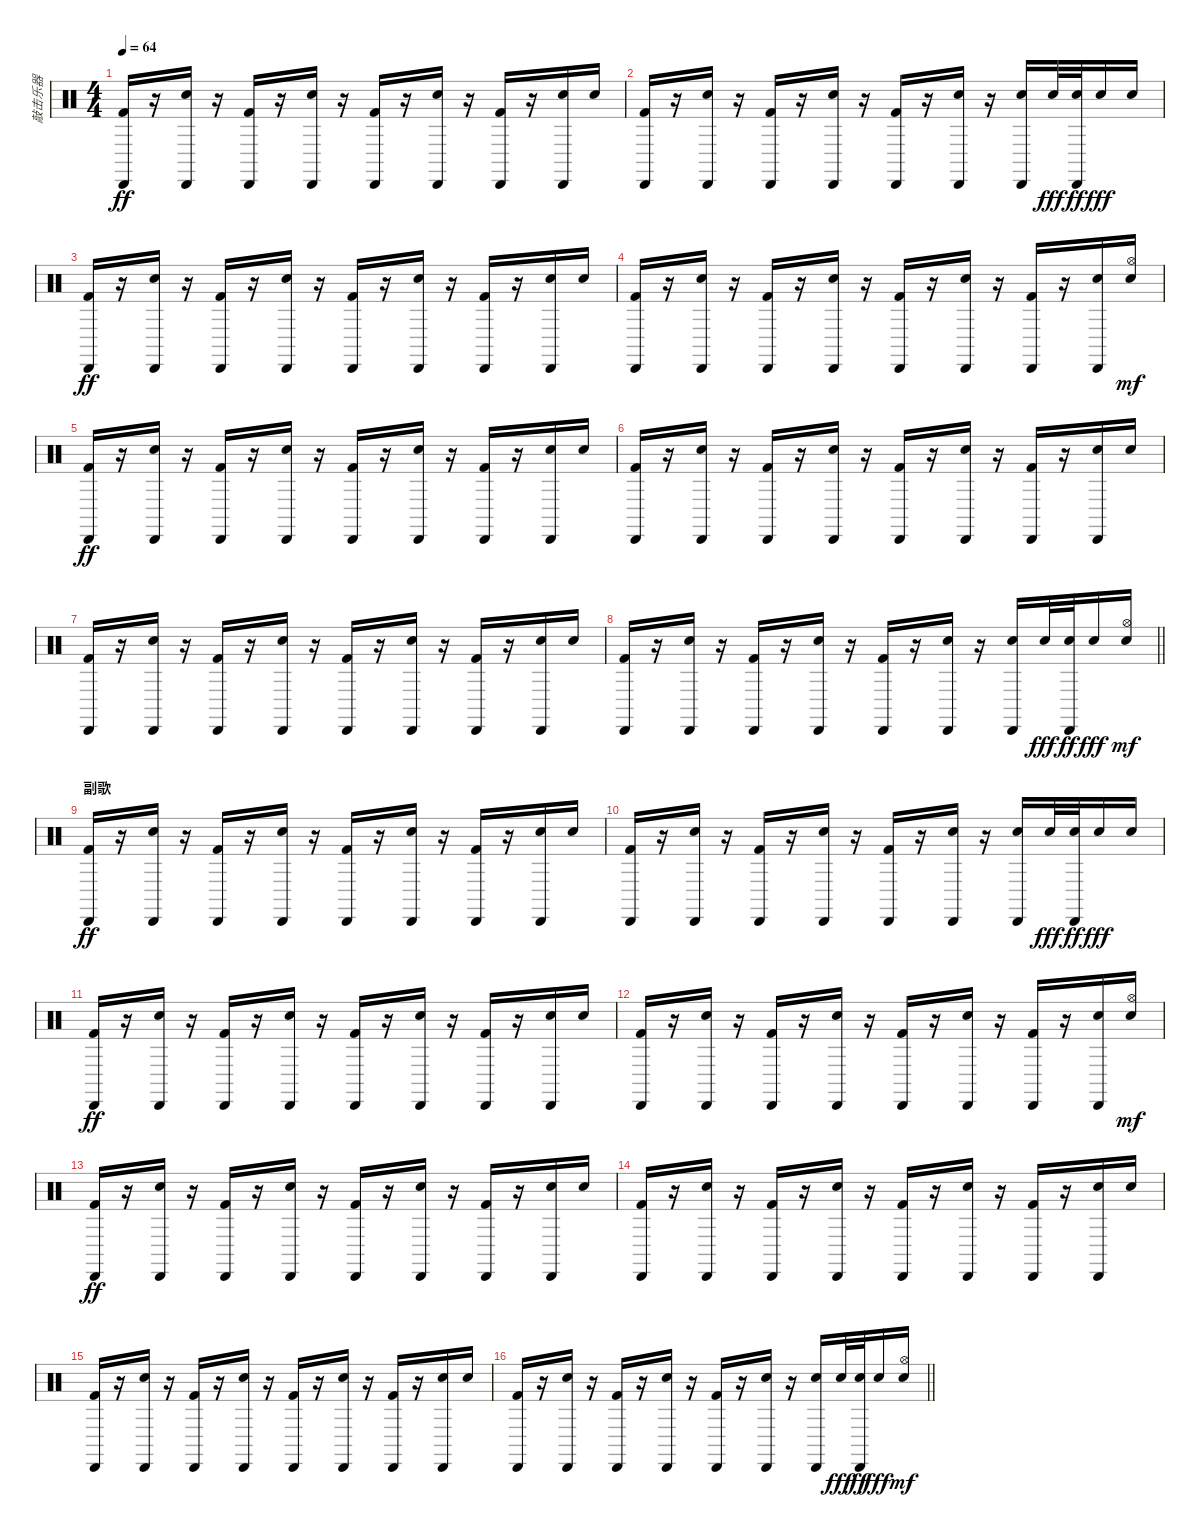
\track ("敲击乐器" "敲击乐器") {instrument percussion}
\staff {score}
\articulation defaults
\ts (4 4)
\section ("" "")
\tempo 64
\clef neutral
\ks c
("Cabasa (hit)" "Kick (hit) 2").16{dy ff} r.16 ("Cabasa (hit)" "Snare (hit) 2").16 r.16 ("Cabasa (hit)" "Kick (hit) 2").16 r.16 ("Cabasa (hit)" "Snare (hit) 2").16 r.16 ("Cabasa (hit)" "Kick (hit) 2").16 r.16 ("Cabasa (hit)" "Snare (hit) 2").16 r.16 ("Cabasa (hit)" "Kick (hit) 2").16 r.16 ("Cabasa (hit)" "Snare (hit) 2").16 "Electric Snare (hit)".16 |
("Cabasa (hit)" "Kick (hit) 2").16 r.16 ("Cabasa (hit)" "Snare (hit) 2").16 r.16 ("Cabasa (hit)" "Kick (hit) 2").16 r.16 ("Cabasa (hit)" "Snare (hit) 2").16 r.16 ("Cabasa (hit)" "Kick (hit) 2").16 r.16 ("Cabasa (hit)" "Snare (hit) 2").16 r.16 ("Cabasa (hit)" "Snare (hit) 2").16 "Snare (hit) 2".32{dy fff} ("Cabasa (hit)" "Snare (hit) 2").32{dy ff} "Electric Snare (hit)".16{dy fff} "Snare (hit) 2".16 |
("Cabasa (hit)" "Kick (hit) 2").16{dy ff} r.16 ("Cabasa (hit)" "Snare (hit) 2").16 r.16 ("Cabasa (hit)" "Kick (hit) 2").16 r.16 ("Cabasa (hit)" "Snare (hit) 2").16 r.16 ("Cabasa (hit)" "Kick (hit) 2").16 r.16 ("Cabasa (hit)" "Snare (hit) 2").16 r.16 ("Cabasa (hit)" "Kick (hit) 2").16 r.16 ("Cabasa (hit)" "Snare (hit) 2").16 "Electric Snare (hit)".16 |
("Cabasa (hit)" "Kick (hit) 2").16 r.16 ("Cabasa (hit)" "Snare (hit) 2").16 r.16 ("Cabasa (hit)" "Kick (hit) 2").16 r.16 ("Cabasa (hit)" "Snare (hit) 2").16 r.16 ("Cabasa (hit)" "Kick (hit) 2").16 r.16 ("Cabasa (hit)" "Snare (hit) 2").16 r.16 ("Cabasa (hit)" "Kick (hit) 2").16 r.16 ("Cabasa (hit)" "Snare (hit) 2").16 ("Electric Snare (hit)" "Hi-Hat (open)").16{dy mf} |
("Cabasa (hit)" "Kick (hit) 2").16{dy ff} r.16 ("Cabasa (hit)" "Snare (hit) 2").16 r.16 ("Cabasa (hit)" "Kick (hit) 2").16 r.16 ("Cabasa (hit)" "Snare (hit) 2").16 r.16 ("Cabasa (hit)" "Kick (hit) 2").16 r.16 ("Cabasa (hit)" "Snare (hit) 2").16 r.16 ("Cabasa (hit)" "Kick (hit) 2").16 r.16 ("Cabasa (hit)" "Snare (hit) 2").16 "Electric Snare (hit)".16 |
("Cabasa (hit)" "Kick (hit) 2").16 r.16 ("Cabasa (hit)" "Snare (hit) 2").16 r.16 ("Cabasa (hit)" "Kick (hit) 2").16 r.16 ("Cabasa (hit)" "Snare (hit) 2").16 r.16 ("Cabasa (hit)" "Kick (hit) 2").16 r.16 ("Cabasa (hit)" "Snare (hit) 2").16 r.16 ("Cabasa (hit)" "Kick (hit) 2").16 r.16 ("Cabasa (hit)" "Snare (hit) 2").16 "Electric Snare (hit)".16 |
("Cabasa (hit)" "Kick (hit) 2").16 r.16 ("Cabasa (hit)" "Snare (hit) 2").16 r.16 ("Cabasa (hit)" "Kick (hit) 2").16 r.16 ("Cabasa (hit)" "Snare (hit) 2").16 r.16 ("Cabasa (hit)" "Kick (hit) 2").16 r.16 ("Cabasa (hit)" "Snare (hit) 2").16 r.16 ("Cabasa (hit)" "Kick (hit) 2").16 r.16 ("Cabasa (hit)" "Snare (hit) 2").16 "Electric Snare (hit)".16 |
\barLineRight lightlight
("Cabasa (hit)" "Kick (hit) 2").16 r.16 ("Cabasa (hit)" "Snare (hit) 2").16 r.16 ("Cabasa (hit)" "Kick (hit) 2").16 r.16 ("Cabasa (hit)" "Snare (hit) 2").16 r.16 ("Cabasa (hit)" "Kick (hit) 2").16 r.16 ("Cabasa (hit)" "Snare (hit) 2").16 r.16 ("Cabasa (hit)" "Snare (hit) 2").16 "Snare (hit) 2".32{dy fff} ("Cabasa (hit)" "Snare (hit) 2").32{dy ff} "Electric Snare (hit)".16{dy fff} ("Snare (hit) 2" "Hi-Hat (open)").16{dy mf} |
\section ("" "副歌")
("Cabasa (hit)" "Kick (hit) 2").16{dy ff} r.16 ("Cabasa (hit)" "Snare (hit) 2").16 r.16 ("Cabasa (hit)" "Kick (hit) 2").16 r.16 ("Cabasa (hit)" "Snare (hit) 2").16 r.16 ("Cabasa (hit)" "Kick (hit) 2").16 r.16 ("Cabasa (hit)" "Snare (hit) 2").16 r.16 ("Cabasa (hit)" "Kick (hit) 2").16 r.16 ("Cabasa (hit)" "Snare (hit) 2").16 "Electric Snare (hit)".16 |
("Cabasa (hit)" "Kick (hit) 2").16 r.16 ("Cabasa (hit)" "Snare (hit) 2").16 r.16 ("Cabasa (hit)" "Kick (hit) 2").16 r.16 ("Cabasa (hit)" "Snare (hit) 2").16 r.16 ("Cabasa (hit)" "Kick (hit) 2").16 r.16 ("Cabasa (hit)" "Snare (hit) 2").16 r.16 ("Cabasa (hit)" "Snare (hit) 2").16 "Snare (hit) 2".32{dy fff} ("Cabasa (hit)" "Snare (hit) 2").32{dy ff} "Electric Snare (hit)".16{dy fff} "Snare (hit) 2".16 |
("Cabasa (hit)" "Kick (hit) 2").16{dy ff} r.16 ("Cabasa (hit)" "Snare (hit) 2").16 r.16 ("Cabasa (hit)" "Kick (hit) 2").16 r.16 ("Cabasa (hit)" "Snare (hit) 2").16 r.16 ("Cabasa (hit)" "Kick (hit) 2").16 r.16 ("Cabasa (hit)" "Snare (hit) 2").16 r.16 ("Cabasa (hit)" "Kick (hit) 2").16 r.16 ("Cabasa (hit)" "Snare (hit) 2").16 "Electric Snare (hit)".16 |
("Cabasa (hit)" "Kick (hit) 2").16 r.16 ("Cabasa (hit)" "Snare (hit) 2").16 r.16 ("Cabasa (hit)" "Kick (hit) 2").16 r.16 ("Cabasa (hit)" "Snare (hit) 2").16 r.16 ("Cabasa (hit)" "Kick (hit) 2").16 r.16 ("Cabasa (hit)" "Snare (hit) 2").16 r.16 ("Cabasa (hit)" "Kick (hit) 2").16 r.16 ("Cabasa (hit)" "Snare (hit) 2").16 ("Electric Snare (hit)" "Hi-Hat (open)").16{dy mf} |
("Cabasa (hit)" "Kick (hit) 2").16{dy ff} r.16 ("Cabasa (hit)" "Snare (hit) 2").16 r.16 ("Cabasa (hit)" "Kick (hit) 2").16 r.16 ("Cabasa (hit)" "Snare (hit) 2").16 r.16 ("Cabasa (hit)" "Kick (hit) 2").16 r.16 ("Cabasa (hit)" "Snare (hit) 2").16 r.16 ("Cabasa (hit)" "Kick (hit) 2").16 r.16 ("Cabasa (hit)" "Snare (hit) 2").16 "Electric Snare (hit)".16 |
("Cabasa (hit)" "Kick (hit) 2").16 r.16 ("Cabasa (hit)" "Snare (hit) 2").16 r.16 ("Cabasa (hit)" "Kick (hit) 2").16 r.16 ("Cabasa (hit)" "Snare (hit) 2").16 r.16 ("Cabasa (hit)" "Kick (hit) 2").16 r.16 ("Cabasa (hit)" "Snare (hit) 2").16 r.16 ("Cabasa (hit)" "Kick (hit) 2").16 r.16 ("Cabasa (hit)" "Snare (hit) 2").16 "Electric Snare (hit)".16 |
("Cabasa (hit)" "Kick (hit) 2").16 r.16 ("Cabasa (hit)" "Snare (hit) 2").16 r.16 ("Cabasa (hit)" "Kick (hit) 2").16 r.16 ("Cabasa (hit)" "Snare (hit) 2").16 r.16 ("Cabasa (hit)" "Kick (hit) 2").16 r.16 ("Cabasa (hit)" "Snare (hit) 2").16 r.16 ("Cabasa (hit)" "Kick (hit) 2").16 r.16 ("Cabasa (hit)" "Snare (hit) 2").16 "Electric Snare (hit)".16 |
\barLineRight lightlight
("Cabasa (hit)" "Kick (hit) 2").16 r.16 ("Cabasa (hit)" "Snare (hit) 2").16 r.16 ("Cabasa (hit)" "Kick (hit) 2").16 r.16 ("Cabasa (hit)" "Snare (hit) 2").16 r.16 ("Cabasa (hit)" "Kick (hit) 2").16 r.16 ("Cabasa (hit)" "Snare (hit) 2").16 r.16 ("Cabasa (hit)" "Snare (hit) 2").16 "Snare (hit) 2".32{dy fff} ("Cabasa (hit)" "Snare (hit) 2").32{dy ff} "Electric Snare (hit)".16{dy fff} ("Snare (hit) 2" "Hi-Hat (open)").16{dy mf}
